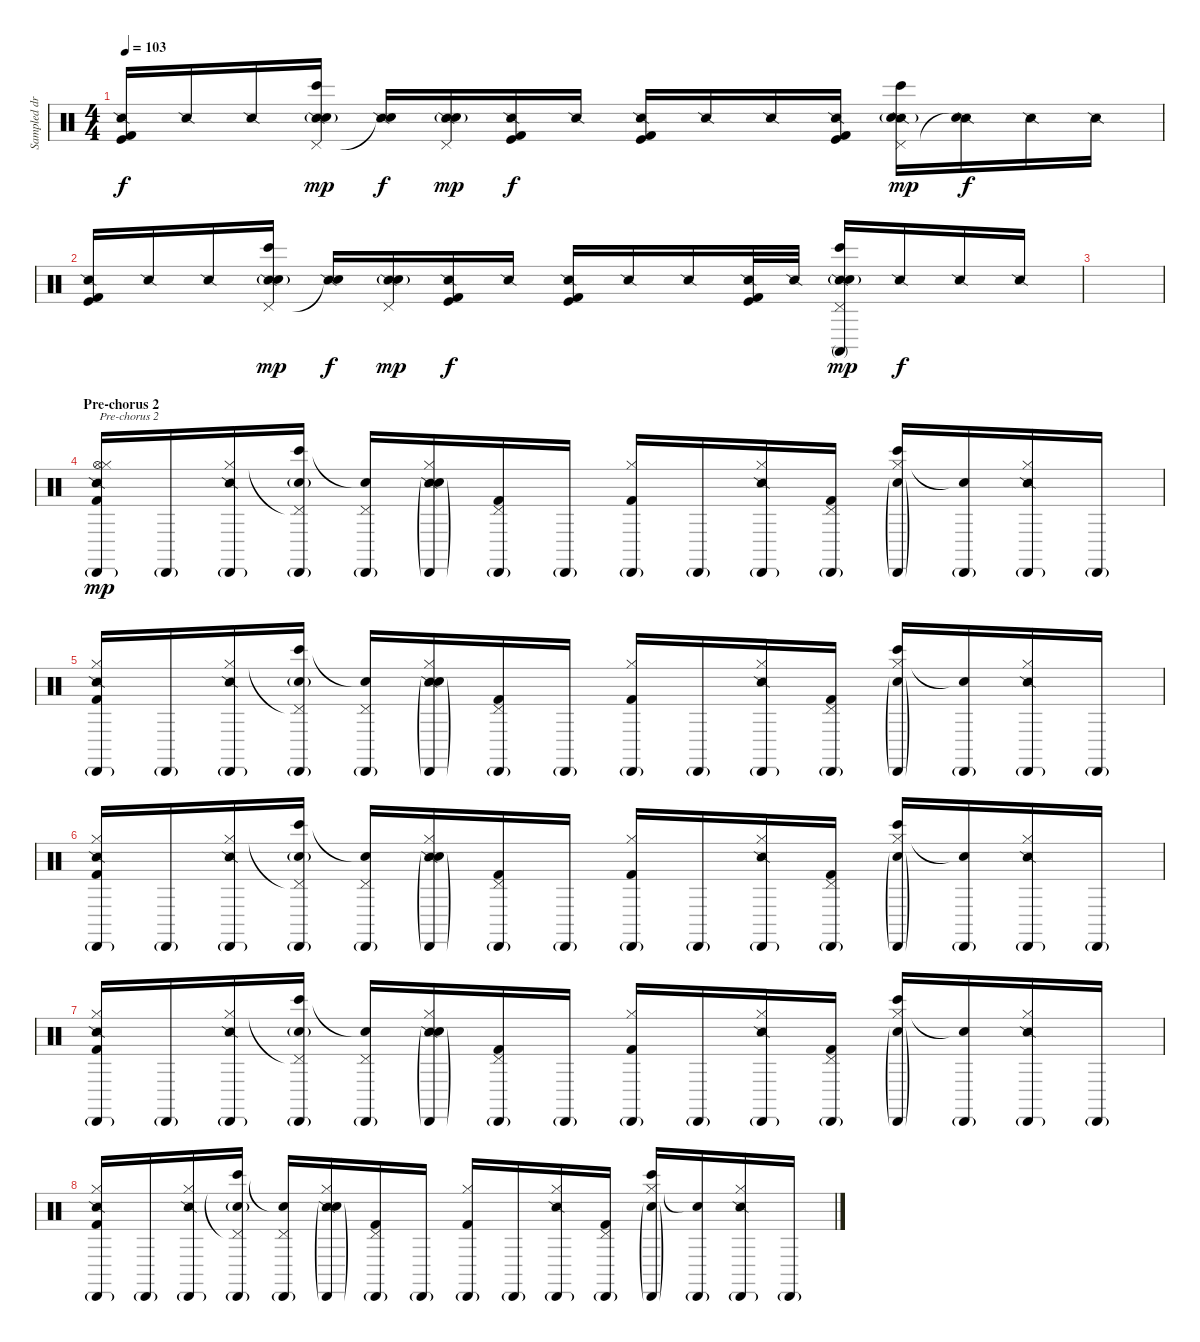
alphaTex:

\track ("Sampled drums (Rob with Joe)" "Sampled dr") {instrument percussion}
\staff {score}
\articulation defaults
\ts (4 4)
\tempo 103
\clef neutral
\ks c
("Snare (side stick) 2" "Kick (hit)" "Kick (hit) 2").16{dy f} "Snare (side stick) 2".16 "Snare (side stick) 2".16 ("Snare (side stick) 2" "Pedal Hi-Hat (hit)" "Bongo High (hit)" "Snare (hit) 2"{g}).16{dy mp} ("Snare (side stick) 2" "Snare (hit)"{t}).16{dy f} ("Snare (side stick) 2" "Pedal Hi-Hat (hit)" "Snare (hit) 2"{g}).16{dy mp} ("Snare (side stick) 2" "Kick (hit)" "Kick (hit) 2").16{dy f} "Snare (side stick) 2".16 ("Snare (side stick) 2" "Kick (hit)" "Kick (hit) 2").16 "Snare (side stick) 2".16 "Snare (side stick) 2".16 ("Snare (side stick) 2" "Kick (hit)" "Kick (hit) 2").16 ("Snare (side stick) 2" "Pedal Hi-Hat (hit)" "Bongo High (hit)" "Snare (hit) 2"{g}).16{dy mp} ("Snare (side stick) 2" "Snare (hit)"{t}).16{dy f} "Snare (side stick) 2".16 "Snare (side stick) 2".16 |
("Snare (side stick) 2" "Kick (hit)" "Kick (hit) 2").16 "Snare (side stick) 2".16 "Snare (side stick) 2".16 ("Snare (side stick) 2" "Pedal Hi-Hat (hit)" "Bongo High (hit)" "Snare (hit) 2"{g}).16{dy mp} ("Snare (side stick) 2" "Snare (hit)"{t}).16{dy f} ("Snare (side stick) 2" "Pedal Hi-Hat (hit)" "Snare (hit) 2"{g}).16{dy mp} ("Snare (side stick) 2" "Kick (hit)" "Kick (hit) 2").16{dy f} "Snare (side stick) 2".16 ("Snare (side stick) 2" "Kick (hit)" "Kick (hit) 2").16 "Snare (side stick) 2".16 "Snare (side stick) 2".16 ("Snare (side stick) 2" "Kick (hit)" "Kick (hit) 2").32 "Snare (side stick) 2".32 ("Snare (side stick) 2" "Pedal Hi-Hat (hit)" "Conga high (mute)" "Bongo High (hit)" "Snare (hit) 2"{g}).16{dy mp} "Snare (side stick) 2".16{dy f} "Snare (side stick) 2".16 "Snare (side stick) 2".16 |
|
\section ("" "Pre-chorus 2")
("Cabasa (hit)"{g} "Hi-Hat (open)" "Hi-Hat (closed)" "Snare (side stick) 2" "Kick (hit) 2").16{txt "Pre-chorus 2" dy mp} "Cabasa (hit)"{g}.16 ("Cabasa (hit)"{g} "Hi-Hat (closed)" "Snare (side stick) 2").16 ("Cabasa (hit)"{g} "Pedal Hi-Hat (hit)"{t} "Bongo High (hit)" "Snare (hit) 2"{g}).16 ("Cabasa (hit)"{g} "Pedal Hi-Hat (hit)" "Snare (hit)"{t}).16 ("Cabasa (hit)"{g} "Hi-Hat (closed)" "Snare (side stick) 2" "Snare (hit) 2"{g}).16 ("Cabasa (hit)"{g} "Pedal Hi-Hat (hit)" "Kick (hit) 2").16 "Cabasa (hit)"{g}.16 ("Cabasa (hit)"{g} "Hi-Hat (closed)" "Kick (hit) 2").16 "Cabasa (hit)"{g}.16 ("Cabasa (hit)"{g} "Hi-Hat (closed)" "Snare (side stick) 2").16 ("Cabasa (hit)"{g} "Pedal Hi-Hat (hit)" "Kick (hit) 2").16 ("Cabasa (hit)"{g} "Hi-Hat (closed)" "Bongo High (hit)" "Snare (hit) 2"{g}).16 ("Cabasa (hit)"{g} "Snare (hit)"{t}).16 ("Cabasa (hit)"{g} "Hi-Hat (closed)" "Snare (side stick) 2").16 "Cabasa (hit)"{g}.16 |
("Cabasa (hit)"{g} "Hi-Hat (closed)" "Snare (side stick) 2" "Kick (hit) 2").16 "Cabasa (hit)"{g}.16 ("Cabasa (hit)"{g} "Hi-Hat (closed)" "Snare (side stick) 2").16 ("Cabasa (hit)"{g} "Pedal Hi-Hat (hit)"{t} "Bongo High (hit)" "Snare (hit) 2"{g}).16 ("Cabasa (hit)"{g} "Pedal Hi-Hat (hit)" "Snare (hit)"{t}).16 ("Cabasa (hit)"{g} "Hi-Hat (closed)" "Snare (side stick) 2" "Snare (hit) 2"{g}).16 ("Cabasa (hit)"{g} "Pedal Hi-Hat (hit)" "Kick (hit) 2").16 "Cabasa (hit)"{g}.16 ("Cabasa (hit)"{g} "Hi-Hat (closed)" "Kick (hit) 2").16 "Cabasa (hit)"{g}.16 ("Cabasa (hit)"{g} "Hi-Hat (closed)" "Snare (side stick) 2").16 ("Cabasa (hit)"{g} "Pedal Hi-Hat (hit)" "Kick (hit) 2").16 ("Cabasa (hit)"{g} "Hi-Hat (closed)" "Bongo High (hit)" "Snare (hit) 2"{g}).16 ("Cabasa (hit)"{g} "Snare (hit)"{t}).16 ("Cabasa (hit)"{g} "Hi-Hat (closed)" "Snare (side stick) 2").16 "Cabasa (hit)"{g}.16 |
("Cabasa (hit)"{g} "Hi-Hat (closed)" "Snare (side stick) 2" "Kick (hit) 2").16 "Cabasa (hit)"{g}.16 ("Cabasa (hit)"{g} "Hi-Hat (closed)" "Snare (side stick) 2").16 ("Cabasa (hit)"{g} "Pedal Hi-Hat (hit)"{t} "Bongo High (hit)" "Snare (hit) 2"{g}).16 ("Cabasa (hit)"{g} "Pedal Hi-Hat (hit)" "Snare (hit)"{t}).16 ("Cabasa (hit)"{g} "Hi-Hat (closed)" "Snare (side stick) 2" "Snare (hit) 2"{g}).16 ("Cabasa (hit)"{g} "Pedal Hi-Hat (hit)" "Kick (hit) 2").16 "Cabasa (hit)"{g}.16 ("Cabasa (hit)"{g} "Hi-Hat (closed)" "Kick (hit) 2").16 "Cabasa (hit)"{g}.16 ("Cabasa (hit)"{g} "Hi-Hat (closed)" "Snare (side stick) 2").16 ("Cabasa (hit)"{g} "Pedal Hi-Hat (hit)" "Kick (hit) 2").16 ("Cabasa (hit)"{g} "Hi-Hat (closed)" "Bongo High (hit)" "Snare (hit) 2"{g}).16 ("Cabasa (hit)"{g} "Snare (hit)"{t}).16 ("Cabasa (hit)"{g} "Hi-Hat (closed)" "Snare (side stick) 2").16 "Cabasa (hit)"{g}.16 |
("Cabasa (hit)"{g} "Hi-Hat (closed)" "Snare (side stick) 2" "Kick (hit) 2").16 "Cabasa (hit)"{g}.16 ("Cabasa (hit)"{g} "Hi-Hat (closed)" "Snare (side stick) 2").16 ("Cabasa (hit)"{g} "Pedal Hi-Hat (hit)"{t} "Bongo High (hit)" "Snare (hit) 2"{g}).16 ("Cabasa (hit)"{g} "Pedal Hi-Hat (hit)" "Snare (hit)"{t}).16 ("Cabasa (hit)"{g} "Hi-Hat (closed)" "Snare (side stick) 2" "Snare (hit) 2"{g}).16 ("Cabasa (hit)"{g} "Pedal Hi-Hat (hit)" "Kick (hit) 2").16 "Cabasa (hit)"{g}.16 ("Cabasa (hit)"{g} "Hi-Hat (closed)" "Kick (hit) 2").16 "Cabasa (hit)"{g}.16 ("Cabasa (hit)"{g} "Hi-Hat (closed)" "Snare (side stick) 2").16 ("Cabasa (hit)"{g} "Pedal Hi-Hat (hit)" "Kick (hit) 2").16 ("Cabasa (hit)"{g} "Hi-Hat (closed)" "Bongo High (hit)" "Snare (hit) 2"{g}).16 ("Cabasa (hit)"{g} "Snare (hit)"{t}).16 ("Cabasa (hit)"{g} "Hi-Hat (closed)" "Snare (side stick) 2").16 "Cabasa (hit)"{g}.16 |
("Cabasa (hit)"{g} "Hi-Hat (closed)" "Snare (side stick) 2" "Kick (hit) 2").16 "Cabasa (hit)"{g}.16 ("Cabasa (hit)"{g} "Hi-Hat (closed)" "Snare (side stick) 2").16 ("Cabasa (hit)"{g} "Pedal Hi-Hat (hit)"{t} "Bongo High (hit)" "Snare (hit) 2"{g}).16 ("Cabasa (hit)"{g} "Pedal Hi-Hat (hit)" "Snare (hit)"{t}).16 ("Cabasa (hit)"{g} "Hi-Hat (closed)" "Snare (side stick) 2" "Snare (hit) 2"{g}).16 ("Cabasa (hit)"{g} "Pedal Hi-Hat (hit)" "Kick (hit) 2").16 "Cabasa (hit)"{g}.16 ("Cabasa (hit)"{g} "Hi-Hat (closed)" "Kick (hit) 2").16 "Cabasa (hit)"{g}.16 ("Cabasa (hit)"{g} "Hi-Hat (closed)" "Snare (side stick) 2").16 ("Cabasa (hit)"{g} "Pedal Hi-Hat (hit)" "Kick (hit) 2").16 ("Cabasa (hit)"{g} "Hi-Hat (closed)" "Bongo High (hit)" "Snare (hit) 2"{g}).16 ("Cabasa (hit)"{g} "Snare (hit)"{t}).16 ("Cabasa (hit)"{g} "Hi-Hat (closed)" "Snare (side stick) 2").16 "Cabasa (hit)"{g}.16
